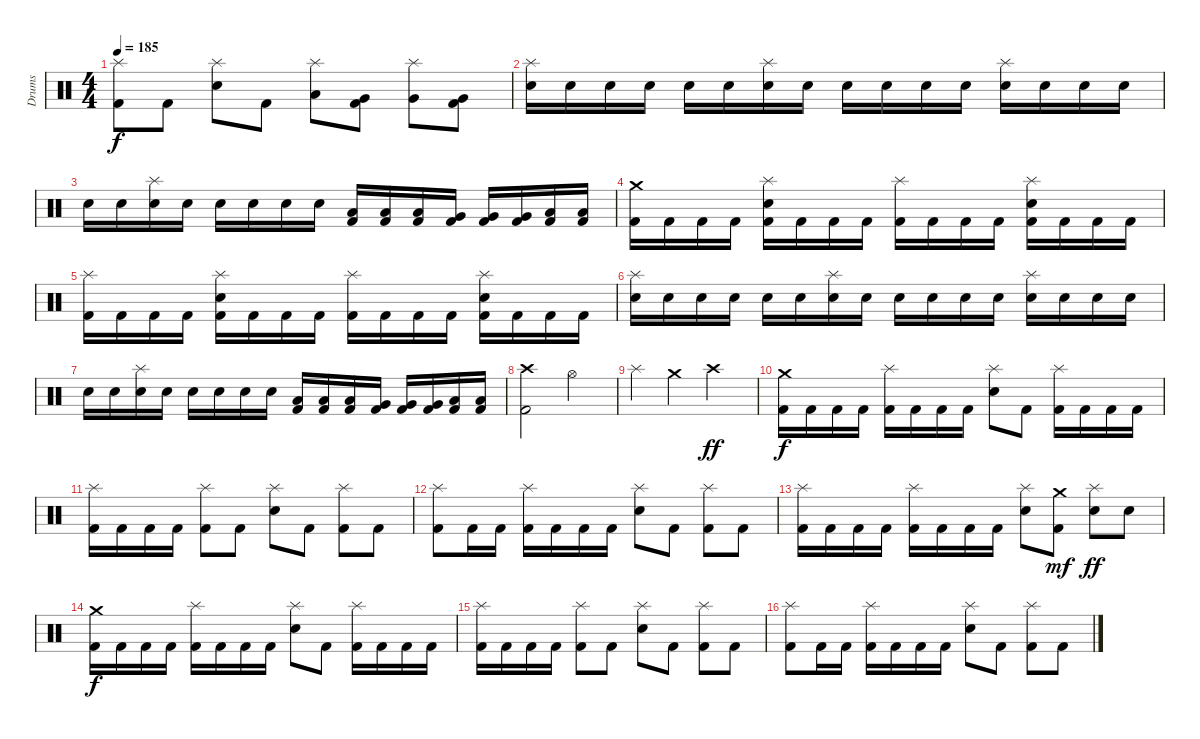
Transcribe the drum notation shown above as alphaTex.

\track ("Drums" "Drums") {instrument percussion}
\staff {score}
\articulation defaults
\ts (4 4)
\tempo 185
\clef neutral
\ks c
("Splash (hit)" "Kick (hit) 2").8{dy f} "Kick (hit) 2".8 ("Splash (hit)" "Snare (hit) 2").8 "Kick (hit) 2".8 ("Splash (hit)" "Low Tom (hit)").8 ("Very Low Tom (hit)" "Kick (hit) 2").8 ("Splash (hit)" "Very Low Tom (hit)").8 ("Very Low Tom (hit)" "Kick (hit) 2").8 |
("Splash (hit)" "Snare (hit) 2").16 "Snare (hit) 2".16 "Snare (hit) 2".16 "Snare (hit) 2".16 "Snare (hit) 2".16 "Snare (hit) 2".16 ("Splash (hit)" "Snare (hit) 2").16 "Snare (hit) 2".16 "Snare (hit) 2".16 "Snare (hit) 2".16 "Snare (hit) 2".16 "Snare (hit) 2".16 ("Splash (hit)" "Snare (hit) 2").16 "Snare (hit) 2".16 "Snare (hit) 2".16 "Snare (hit) 2".16 |
"Snare (hit) 2".16 "Snare (hit) 2".16 ("Splash (hit)" "Snare (hit) 2").16 "Snare (hit) 2".16 "Snare (hit) 2".16 "Snare (hit) 2".16 "Snare (hit) 2".16 "Snare (hit) 2".16 ("Kick (hit) 2" "Low Tom (hit)").16 ("Kick (hit) 2" "Low Tom (hit)").16 ("Kick (hit) 2" "Low Tom (hit)").16 ("Kick (hit) 2" "Very Low Tom (hit)").16 ("Kick (hit) 2" "Very Low Tom (hit)").16 ("Kick (hit) 2" "Very Low Tom (hit)").16 ("Kick (hit) 2" "Low Floor Tom (hit)").16 ("Kick (hit) 2" "Low Floor Tom (hit)").16 |
("Crash medium (hit)" "Kick (hit) 2").16 "Kick (hit) 2".16 "Kick (hit) 2".16 "Kick (hit) 2".16 ("Snare (hit) 2" "Splash (hit)" "Kick (hit) 2").16 "Kick (hit) 2".16 "Kick (hit) 2".16 "Kick (hit) 2".16 ("Splash (hit)" "Kick (hit) 2").16 "Kick (hit) 2".16 "Kick (hit) 2".16 "Kick (hit) 2".16 ("Snare (hit) 2" "Splash (hit)" "Kick (hit) 2").16 "Kick (hit) 2".16 "Kick (hit) 2".16 "Kick (hit) 2".16 |
("Splash (hit)" "Kick (hit) 2").16 "Kick (hit) 2".16 "Kick (hit) 2".16 "Kick (hit) 2".16 ("Snare (hit) 2" "Splash (hit)" "Kick (hit) 2").16 "Kick (hit) 2".16 "Kick (hit) 2".16 "Kick (hit) 2".16 ("Splash (hit)" "Kick (hit) 2").16 "Kick (hit) 2".16 "Kick (hit) 2".16 "Kick (hit) 2".16 ("Snare (hit) 2" "Splash (hit)" "Kick (hit) 2").16 "Kick (hit) 2".16 "Kick (hit) 2".16 "Kick (hit) 2".16 |
("Splash (hit)" "Snare (hit) 2").16 "Snare (hit) 2".16 "Snare (hit) 2".16 "Snare (hit) 2".16 "Snare (hit) 2".16 "Snare (hit) 2".16 ("Splash (hit)" "Snare (hit) 2").16 "Snare (hit) 2".16 "Snare (hit) 2".16 "Snare (hit) 2".16 "Snare (hit) 2".16 "Snare (hit) 2".16 ("Splash (hit)" "Snare (hit) 2").16 "Snare (hit) 2".16 "Snare (hit) 2".16 "Snare (hit) 2".16 |
"Snare (hit) 2".16 "Snare (hit) 2".16 ("Splash (hit)" "Snare (hit) 2").16 "Snare (hit) 2".16 "Snare (hit) 2".16 "Snare (hit) 2".16 "Snare (hit) 2".16 "Snare (hit) 2".16 ("Kick (hit) 2" "Low Tom (hit)").16 ("Kick (hit) 2" "Low Tom (hit)").16 ("Kick (hit) 2" "Low Tom (hit)").16 ("Kick (hit) 2" "Very Low Tom (hit)").16 ("Kick (hit) 2" "Very Low Tom (hit)").16 ("Kick (hit) 2" "Very Low Tom (hit)").16 ("Kick (hit) 2" "Low Floor Tom (hit)").16 ("Kick (hit) 2" "Low Floor Tom (hit)").16 |
("Crash high (hit)" "Kick (hit) 2").2 "Hi-Hat (open)".2 |
"Splash (hit)".4 "Crash medium (hit)".4 "Crash high (hit)".2{dy ff} |
("Crash medium (hit)" "Kick (hit) 2").16{dy f} "Kick (hit) 2".16 "Kick (hit) 2".16 "Kick (hit) 2".16 ("Splash (hit)" "Kick (hit) 2").16 "Kick (hit) 2".16 "Kick (hit) 2".16 "Kick (hit) 2".16 ("Splash (hit)" "Snare (hit) 2").8 "Kick (hit) 2".8 ("Splash (hit)" "Kick (hit) 2").16 "Kick (hit) 2".16 "Kick (hit) 2".16 "Kick (hit) 2".16 |
("Splash (hit)" "Kick (hit) 2").16 "Kick (hit) 2".16 "Kick (hit) 2".16 "Kick (hit) 2".16 ("Splash (hit)" "Kick (hit) 2").8 "Kick (hit) 2".8 ("Splash (hit)" "Snare (hit) 2").8 "Kick (hit) 2".8 ("Splash (hit)" "Kick (hit) 2").8 "Kick (hit) 2".8 |
("Splash (hit)" "Kick (hit) 2").8 "Kick (hit) 2".16 "Kick (hit) 2".16 ("Splash (hit)" "Kick (hit) 2").16 "Kick (hit) 2".16 "Kick (hit) 2".16 "Kick (hit) 2".16 ("Splash (hit)" "Snare (hit) 2").8 "Kick (hit) 2".8 ("Splash (hit)" "Kick (hit) 2").8 "Kick (hit) 2".8 |
("Splash (hit)" "Kick (hit) 2").16 "Kick (hit) 2".16 "Kick (hit) 2".16 "Kick (hit) 2".16 ("Splash (hit)" "Kick (hit) 2").16 "Kick (hit) 2".16 "Kick (hit) 2".16 "Kick (hit) 2".16 ("Splash (hit)" "Snare (hit) 2").8 ("Crash medium (hit)" "Kick (hit) 2").8{dy mf} ("Splash (hit)" "Snare (hit) 2").8{dy ff} "Snare (hit) 2".8 |
("Crash medium (hit)" "Kick (hit) 2").16{dy f} "Kick (hit) 2".16 "Kick (hit) 2".16 "Kick (hit) 2".16 ("Splash (hit)" "Kick (hit) 2").16 "Kick (hit) 2".16 "Kick (hit) 2".16 "Kick (hit) 2".16 ("Splash (hit)" "Snare (hit) 2").8 "Kick (hit) 2".8 ("Splash (hit)" "Kick (hit) 2").16 "Kick (hit) 2".16 "Kick (hit) 2".16 "Kick (hit) 2".16 |
("Splash (hit)" "Kick (hit) 2").16 "Kick (hit) 2".16 "Kick (hit) 2".16 "Kick (hit) 2".16 ("Splash (hit)" "Kick (hit) 2").8 "Kick (hit) 2".8 ("Splash (hit)" "Snare (hit) 2").8 "Kick (hit) 2".8 ("Splash (hit)" "Kick (hit) 2").8 "Kick (hit) 2".8 |
("Splash (hit)" "Kick (hit) 2").8 "Kick (hit) 2".16 "Kick (hit) 2".16 ("Splash (hit)" "Kick (hit) 2").16 "Kick (hit) 2".16 "Kick (hit) 2".16 "Kick (hit) 2".16 ("Splash (hit)" "Snare (hit) 2").8 "Kick (hit) 2".8 ("Splash (hit)" "Kick (hit) 2").8 "Kick (hit) 2".8
